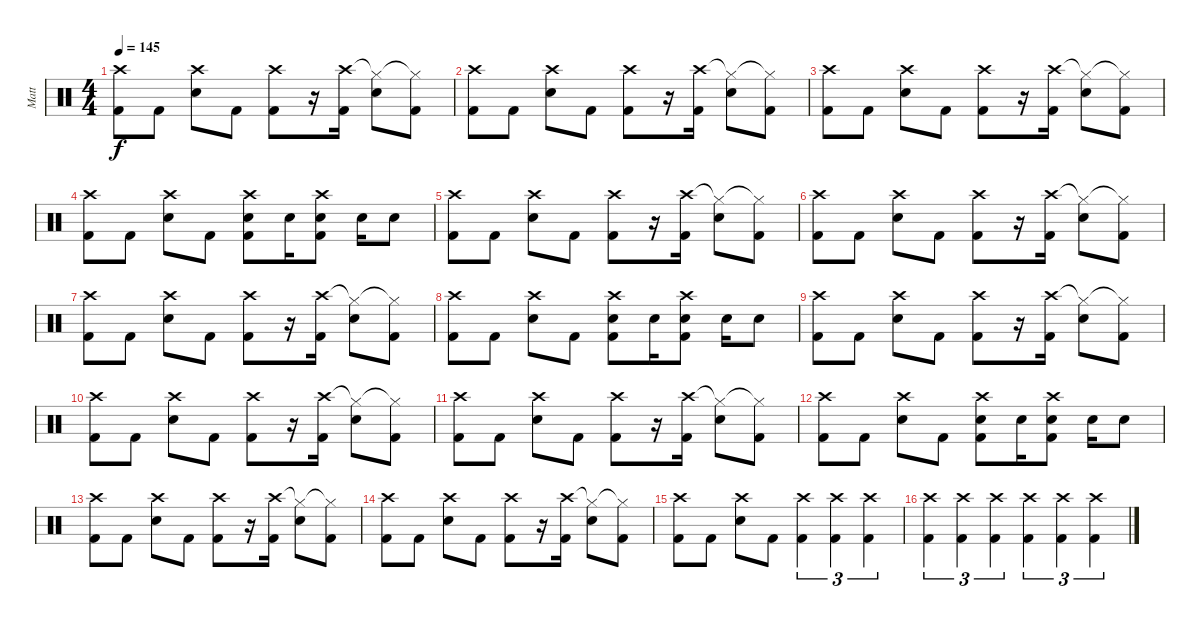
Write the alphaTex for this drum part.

\track ("Matt" "Matt") {instrument percussion}
\staff {score}
\articulation defaults
\ts (4 4)
\tempo 145
\clef neutral
\ks c
("Crash high (hit)" "Kick (hit) 2").8{dy f} "Kick (hit) 2".8 ("Crash high (hit)" "Snare (hit) 2").8 "Kick (hit) 2".8 ("Crash high (hit)" "Kick (hit) 2").8 r.16 ("Crash high (hit)" "Kick (hit) 2").16 ("Hi-Hat (closed)"{t} "Snare (hit) 2").8 ("Hi-Hat (closed)"{t} "Kick (hit) 2").8 |
("Crash high (hit)" "Kick (hit) 2").8 "Kick (hit) 2".8 ("Crash high (hit)" "Snare (hit) 2").8 "Kick (hit) 2".8 ("Crash high (hit)" "Kick (hit) 2").8 r.16 ("Crash high (hit)" "Kick (hit) 2").16 ("Hi-Hat (closed)"{t} "Snare (hit) 2").8 ("Hi-Hat (closed)"{t} "Kick (hit) 2").8 |
("Crash high (hit)" "Kick (hit) 2").8 "Kick (hit) 2".8 ("Crash high (hit)" "Snare (hit) 2").8 "Kick (hit) 2".8 ("Crash high (hit)" "Kick (hit) 2").8 r.16 ("Crash high (hit)" "Kick (hit) 2").16 ("Hi-Hat (closed)"{t} "Snare (hit) 2").8 ("Hi-Hat (closed)"{t} "Kick (hit) 2").8 |
("Crash high (hit)" "Kick (hit) 2").8 "Kick (hit) 2".8 ("Crash high (hit)" "Snare (hit) 2").8 "Kick (hit) 2".8 ("Crash high (hit)" "Snare (hit) 2" "Kick (hit) 2").8 "Snare (hit) 2".16 ("Crash high (hit)" "Snare (hit) 2" "Kick (hit) 2").8 "Snare (hit) 2".16 "Snare (hit) 2".8 |
("Crash high (hit)" "Kick (hit) 2").8 "Kick (hit) 2".8 ("Crash high (hit)" "Snare (hit) 2").8 "Kick (hit) 2".8 ("Crash high (hit)" "Kick (hit) 2").8 r.16 ("Crash high (hit)" "Kick (hit) 2").16 ("Hi-Hat (closed)"{t} "Snare (hit) 2").8 ("Hi-Hat (closed)"{t} "Kick (hit) 2").8 |
("Crash high (hit)" "Kick (hit) 2").8 "Kick (hit) 2".8 ("Crash high (hit)" "Snare (hit) 2").8 "Kick (hit) 2".8 ("Crash high (hit)" "Kick (hit) 2").8 r.16 ("Crash high (hit)" "Kick (hit) 2").16 ("Hi-Hat (closed)"{t} "Snare (hit) 2").8 ("Hi-Hat (closed)"{t} "Kick (hit) 2").8 |
("Crash high (hit)" "Kick (hit) 2").8 "Kick (hit) 2".8 ("Crash high (hit)" "Snare (hit) 2").8 "Kick (hit) 2".8 ("Crash high (hit)" "Kick (hit) 2").8 r.16 ("Crash high (hit)" "Kick (hit) 2").16 ("Hi-Hat (closed)"{t} "Snare (hit) 2").8 ("Hi-Hat (closed)"{t} "Kick (hit) 2").8 |
("Crash high (hit)" "Kick (hit) 2").8 "Kick (hit) 2".8 ("Crash high (hit)" "Snare (hit) 2").8 "Kick (hit) 2".8 ("Crash high (hit)" "Snare (hit) 2" "Kick (hit) 2").8 "Snare (hit) 2".16 ("Crash high (hit)" "Snare (hit) 2" "Kick (hit) 2").8 "Snare (hit) 2".16 "Snare (hit) 2".8 |
("Crash high (hit)" "Kick (hit) 2").8 "Kick (hit) 2".8 ("Crash high (hit)" "Snare (hit) 2").8 "Kick (hit) 2".8 ("Crash high (hit)" "Kick (hit) 2").8 r.16 ("Crash high (hit)" "Kick (hit) 2").16 ("Hi-Hat (closed)"{t} "Snare (hit) 2").8 ("Hi-Hat (closed)"{t} "Kick (hit) 2").8 |
("Crash high (hit)" "Kick (hit) 2").8 "Kick (hit) 2".8 ("Crash high (hit)" "Snare (hit) 2").8 "Kick (hit) 2".8 ("Crash high (hit)" "Kick (hit) 2").8 r.16 ("Crash high (hit)" "Kick (hit) 2").16 ("Hi-Hat (closed)"{t} "Snare (hit) 2").8 ("Hi-Hat (closed)"{t} "Kick (hit) 2").8 |
("Crash high (hit)" "Kick (hit) 2").8 "Kick (hit) 2".8 ("Crash high (hit)" "Snare (hit) 2").8 "Kick (hit) 2".8 ("Crash high (hit)" "Kick (hit) 2").8 r.16 ("Crash high (hit)" "Kick (hit) 2").16 ("Hi-Hat (closed)"{t} "Snare (hit) 2").8 ("Hi-Hat (closed)"{t} "Kick (hit) 2").8 |
("Crash high (hit)" "Kick (hit) 2").8 "Kick (hit) 2".8 ("Crash high (hit)" "Snare (hit) 2").8 "Kick (hit) 2".8 ("Crash high (hit)" "Snare (hit) 2" "Kick (hit) 2").8 "Snare (hit) 2".16 ("Crash high (hit)" "Snare (hit) 2" "Kick (hit) 2").8 "Snare (hit) 2".16 "Snare (hit) 2".8 |
("Crash high (hit)" "Kick (hit) 2").8 "Kick (hit) 2".8 ("Crash high (hit)" "Snare (hit) 2").8 "Kick (hit) 2".8 ("Crash high (hit)" "Kick (hit) 2").8 r.16 ("Crash high (hit)" "Kick (hit) 2").16 ("Hi-Hat (closed)"{t} "Snare (hit) 2").8 ("Hi-Hat (closed)"{t} "Kick (hit) 2").8 |
("Crash high (hit)" "Kick (hit) 2").8 "Kick (hit) 2".8 ("Crash high (hit)" "Snare (hit) 2").8 "Kick (hit) 2".8 ("Crash high (hit)" "Kick (hit) 2").8 r.16 ("Crash high (hit)" "Kick (hit) 2").16 ("Hi-Hat (closed)"{t} "Snare (hit) 2").8 ("Hi-Hat (closed)"{t} "Kick (hit) 2").8 |
("Crash high (hit)" "Kick (hit) 2").8 "Kick (hit) 2".8 ("Crash high (hit)" "Snare (hit) 2").8 "Kick (hit) 2".8 ("Crash high (hit)" "Kick (hit) 2").4{tu (3 2)} ("Crash high (hit)" "Kick (hit) 2").4{tu (3 2)} ("Crash high (hit)" "Kick (hit) 2").4{tu (3 2)} |
("Crash high (hit)" "Kick (hit) 2").4{tu (3 2)} ("Crash high (hit)" "Kick (hit) 2").4{tu (3 2)} ("Crash high (hit)" "Kick (hit) 2").4{tu (3 2)} ("Crash high (hit)" "Kick (hit) 2").4{tu (3 2)} ("Crash high (hit)" "Kick (hit) 2").4{tu (3 2)} ("Crash high (hit)" "Kick (hit) 2").4{tu (3 2)}
